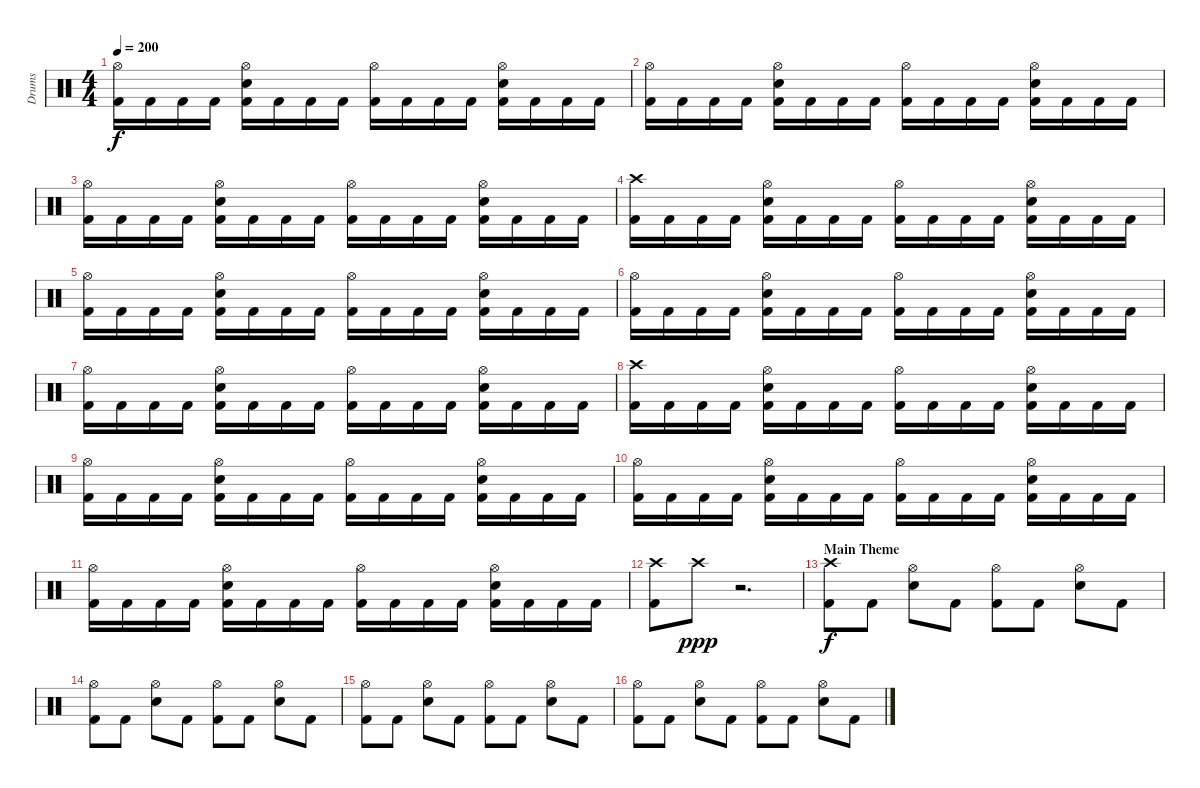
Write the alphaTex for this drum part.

\track ("Drums" "Drums") {instrument percussion}
\staff {score}
\articulation defaults
\ts (4 4)
\tempo 200
\clef neutral
\ks c
("Hi-Hat (open)" "Kick (hit) 2").16{dy f} "Kick (hit) 2".16 "Kick (hit) 2".16 "Kick (hit) 2".16 ("Hi-Hat (open)" "Electric Snare (hit)" "Kick (hit) 2").16 "Kick (hit) 2".16 "Kick (hit) 2".16 "Kick (hit) 2".16 ("Hi-Hat (open)" "Kick (hit) 2").16 "Kick (hit) 2".16 "Kick (hit) 2".16 "Kick (hit) 2".16 ("Hi-Hat (open)" "Electric Snare (hit)" "Kick (hit) 2").16 "Kick (hit) 2".16 "Kick (hit) 2".16 "Kick (hit) 2".16 |
("Hi-Hat (open)" "Kick (hit) 2").16 "Kick (hit) 2".16 "Kick (hit) 2".16 "Kick (hit) 2".16 ("Hi-Hat (open)" "Electric Snare (hit)" "Kick (hit) 2").16 "Kick (hit) 2".16 "Kick (hit) 2".16 "Kick (hit) 2".16 ("Hi-Hat (open)" "Kick (hit) 2").16 "Kick (hit) 2".16 "Kick (hit) 2".16 "Kick (hit) 2".16 ("Hi-Hat (open)" "Electric Snare (hit)" "Kick (hit) 2").16 "Kick (hit) 2".16 "Kick (hit) 2".16 "Kick (hit) 2".16 |
("Hi-Hat (open)" "Kick (hit) 2").16 "Kick (hit) 2".16 "Kick (hit) 2".16 "Kick (hit) 2".16 ("Hi-Hat (open)" "Electric Snare (hit)" "Kick (hit) 2").16 "Kick (hit) 2".16 "Kick (hit) 2".16 "Kick (hit) 2".16 ("Hi-Hat (open)" "Kick (hit) 2").16 "Kick (hit) 2".16 "Kick (hit) 2".16 "Kick (hit) 2".16 ("Hi-Hat (open)" "Electric Snare (hit)" "Kick (hit) 2").16 "Kick (hit) 2".16 "Kick (hit) 2".16 "Kick (hit) 2".16 |
("Crash high (hit)" "Kick (hit) 2").16 "Kick (hit) 2".16 "Kick (hit) 2".16 "Kick (hit) 2".16 ("Hi-Hat (open)" "Electric Snare (hit)" "Kick (hit) 2").16 "Kick (hit) 2".16 "Kick (hit) 2".16 "Kick (hit) 2".16 ("Hi-Hat (open)" "Kick (hit) 2").16 "Kick (hit) 2".16 "Kick (hit) 2".16 "Kick (hit) 2".16 ("Hi-Hat (open)" "Electric Snare (hit)" "Kick (hit) 2").16 "Kick (hit) 2".16 "Kick (hit) 2".16 "Kick (hit) 2".16 |
("Hi-Hat (open)" "Kick (hit) 2").16 "Kick (hit) 2".16 "Kick (hit) 2".16 "Kick (hit) 2".16 ("Hi-Hat (open)" "Electric Snare (hit)" "Kick (hit) 2").16 "Kick (hit) 2".16 "Kick (hit) 2".16 "Kick (hit) 2".16 ("Hi-Hat (open)" "Kick (hit) 2").16 "Kick (hit) 2".16 "Kick (hit) 2".16 "Kick (hit) 2".16 ("Hi-Hat (open)" "Electric Snare (hit)" "Kick (hit) 2").16 "Kick (hit) 2".16 "Kick (hit) 2".16 "Kick (hit) 2".16 |
("Hi-Hat (open)" "Kick (hit) 2").16 "Kick (hit) 2".16 "Kick (hit) 2".16 "Kick (hit) 2".16 ("Hi-Hat (open)" "Electric Snare (hit)" "Kick (hit) 2").16 "Kick (hit) 2".16 "Kick (hit) 2".16 "Kick (hit) 2".16 ("Hi-Hat (open)" "Kick (hit) 2").16 "Kick (hit) 2".16 "Kick (hit) 2".16 "Kick (hit) 2".16 ("Hi-Hat (open)" "Electric Snare (hit)" "Kick (hit) 2").16 "Kick (hit) 2".16 "Kick (hit) 2".16 "Kick (hit) 2".16 |
("Hi-Hat (open)" "Kick (hit) 2").16 "Kick (hit) 2".16 "Kick (hit) 2".16 "Kick (hit) 2".16 ("Hi-Hat (open)" "Electric Snare (hit)" "Kick (hit) 2").16 "Kick (hit) 2".16 "Kick (hit) 2".16 "Kick (hit) 2".16 ("Hi-Hat (open)" "Kick (hit) 2").16 "Kick (hit) 2".16 "Kick (hit) 2".16 "Kick (hit) 2".16 ("Hi-Hat (open)" "Electric Snare (hit)" "Kick (hit) 2").16 "Kick (hit) 2".16 "Kick (hit) 2".16 "Kick (hit) 2".16 |
("Crash high (hit)" "Kick (hit) 2").16 "Kick (hit) 2".16 "Kick (hit) 2".16 "Kick (hit) 2".16 ("Hi-Hat (open)" "Electric Snare (hit)" "Kick (hit) 2").16 "Kick (hit) 2".16 "Kick (hit) 2".16 "Kick (hit) 2".16 ("Hi-Hat (open)" "Kick (hit) 2").16 "Kick (hit) 2".16 "Kick (hit) 2".16 "Kick (hit) 2".16 ("Hi-Hat (open)" "Electric Snare (hit)" "Kick (hit) 2").16 "Kick (hit) 2".16 "Kick (hit) 2".16 "Kick (hit) 2".16 |
("Hi-Hat (open)" "Kick (hit) 2").16 "Kick (hit) 2".16 "Kick (hit) 2".16 "Kick (hit) 2".16 ("Hi-Hat (open)" "Electric Snare (hit)" "Kick (hit) 2").16 "Kick (hit) 2".16 "Kick (hit) 2".16 "Kick (hit) 2".16 ("Hi-Hat (open)" "Kick (hit) 2").16 "Kick (hit) 2".16 "Kick (hit) 2".16 "Kick (hit) 2".16 ("Hi-Hat (open)" "Electric Snare (hit)" "Kick (hit) 2").16 "Kick (hit) 2".16 "Kick (hit) 2".16 "Kick (hit) 2".16 |
("Hi-Hat (open)" "Kick (hit) 2").16 "Kick (hit) 2".16 "Kick (hit) 2".16 "Kick (hit) 2".16 ("Hi-Hat (open)" "Electric Snare (hit)" "Kick (hit) 2").16 "Kick (hit) 2".16 "Kick (hit) 2".16 "Kick (hit) 2".16 ("Hi-Hat (open)" "Kick (hit) 2").16 "Kick (hit) 2".16 "Kick (hit) 2".16 "Kick (hit) 2".16 ("Hi-Hat (open)" "Electric Snare (hit)" "Kick (hit) 2").16 "Kick (hit) 2".16 "Kick (hit) 2".16 "Kick (hit) 2".16 |
("Hi-Hat (open)" "Kick (hit) 2").16 "Kick (hit) 2".16 "Kick (hit) 2".16 "Kick (hit) 2".16 ("Hi-Hat (open)" "Electric Snare (hit)" "Kick (hit) 2").16 "Kick (hit) 2".16 "Kick (hit) 2".16 "Kick (hit) 2".16 ("Hi-Hat (open)" "Kick (hit) 2").16 "Kick (hit) 2".16 "Kick (hit) 2".16 "Kick (hit) 2".16 ("Hi-Hat (open)" "Electric Snare (hit)" "Kick (hit) 2").16 "Kick (hit) 2".16 "Kick (hit) 2".16 "Kick (hit) 2".16 |
("Crash high (hit)" "Kick (hit) 2").8 "Crash high (hit)".8{dy ppp} r.2{d} |
\section ("" "Main Theme")
("Crash high (hit)" "Kick (hit) 2").8{dy f} "Kick (hit) 2".8 ("Hi-Hat (open)" "Electric Snare (hit)").8 "Kick (hit) 2".8 ("Hi-Hat (open)" "Kick (hit) 2").8 "Kick (hit) 2".8 ("Hi-Hat (open)" "Electric Snare (hit)").8 "Kick (hit) 2".8 |
("Hi-Hat (open)" "Kick (hit) 2").8 "Kick (hit) 2".8 ("Hi-Hat (open)" "Electric Snare (hit)").8 "Kick (hit) 2".8 ("Hi-Hat (open)" "Kick (hit) 2").8 "Kick (hit) 2".8 ("Hi-Hat (open)" "Electric Snare (hit)").8 "Kick (hit) 2".8 |
("Hi-Hat (open)" "Kick (hit) 2").8 "Kick (hit) 2".8 ("Hi-Hat (open)" "Electric Snare (hit)").8 "Kick (hit) 2".8 ("Hi-Hat (open)" "Kick (hit) 2").8 "Kick (hit) 2".8 ("Hi-Hat (open)" "Electric Snare (hit)").8 "Kick (hit) 2".8 |
("Hi-Hat (open)" "Kick (hit) 2").8 "Kick (hit) 2".8 ("Hi-Hat (open)" "Electric Snare (hit)").8 "Kick (hit) 2".8 ("Hi-Hat (open)" "Kick (hit) 2").8 "Kick (hit) 2".8 ("Hi-Hat (open)" "Electric Snare (hit)").8 "Kick (hit) 2".8
